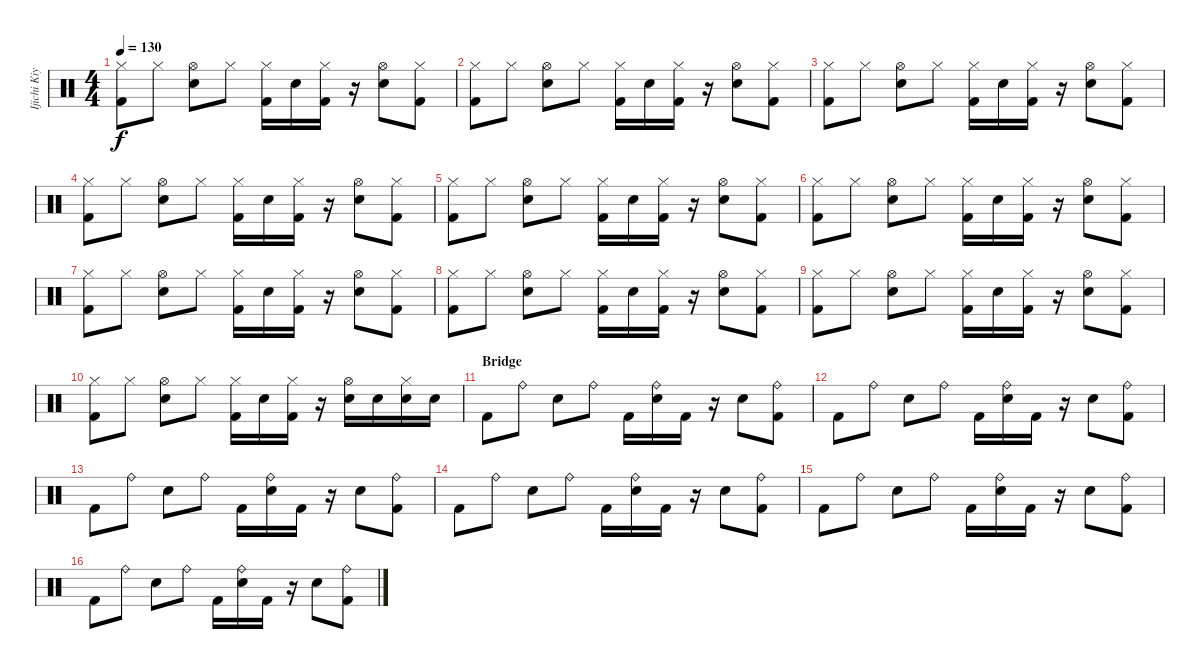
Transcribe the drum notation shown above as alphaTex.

\track ("Ijichi Kiyoshi (Drums)" "Ijichi Kiy") {instrument percussion}
\staff {score}
\articulation defaults
\ts (4 4)
\tempo 130
\clef neutral
\ks c
("Hi-Hat (closed)" "Kick (hit) 2").8{dy f} "Hi-Hat (closed)".8 ("Hi-Hat (open)" "Snare (hit) 2").8 "Hi-Hat (closed)".8 ("Hi-Hat (closed)" "Kick (hit) 2").16 "Snare (hit) 2".16 ("Hi-Hat (closed)" "Kick (hit) 2").16 r.16 ("Hi-Hat (open)" "Snare (hit) 2").8 ("Hi-Hat (closed)" "Kick (hit) 2").8 |
("Hi-Hat (closed)" "Kick (hit) 2").8 "Hi-Hat (closed)".8 ("Hi-Hat (open)" "Snare (hit) 2").8 "Hi-Hat (closed)".8 ("Hi-Hat (closed)" "Kick (hit) 2").16 "Snare (hit) 2".16 ("Hi-Hat (closed)" "Kick (hit) 2").16 r.16 ("Hi-Hat (open)" "Snare (hit) 2").8 ("Hi-Hat (closed)" "Kick (hit) 2").8 |
("Hi-Hat (closed)" "Kick (hit) 2").8 "Hi-Hat (closed)".8 ("Hi-Hat (open)" "Snare (hit) 2").8 "Hi-Hat (closed)".8 ("Hi-Hat (closed)" "Kick (hit) 2").16 "Snare (hit) 2".16 ("Hi-Hat (closed)" "Kick (hit) 2").16 r.16 ("Hi-Hat (open)" "Snare (hit) 2").8 ("Hi-Hat (closed)" "Kick (hit) 2").8 |
("Hi-Hat (closed)" "Kick (hit) 2").8 "Hi-Hat (closed)".8 ("Hi-Hat (open)" "Snare (hit) 2").8 "Hi-Hat (closed)".8 ("Hi-Hat (closed)" "Kick (hit) 2").16 "Snare (hit) 2".16 ("Hi-Hat (closed)" "Kick (hit) 2").16 r.16 ("Hi-Hat (open)" "Snare (hit) 2").8 ("Hi-Hat (closed)" "Kick (hit) 2").8 |
("Hi-Hat (closed)" "Kick (hit) 2").8 "Hi-Hat (closed)".8 ("Hi-Hat (open)" "Snare (hit) 2").8 "Hi-Hat (closed)".8 ("Hi-Hat (closed)" "Kick (hit) 2").16 "Snare (hit) 2".16 ("Hi-Hat (closed)" "Kick (hit) 2").16 r.16 ("Hi-Hat (open)" "Snare (hit) 2").8 ("Hi-Hat (closed)" "Kick (hit) 2").8 |
("Hi-Hat (closed)" "Kick (hit) 2").8 "Hi-Hat (closed)".8 ("Hi-Hat (open)" "Snare (hit) 2").8 "Hi-Hat (closed)".8 ("Hi-Hat (closed)" "Kick (hit) 2").16 "Snare (hit) 2".16 ("Hi-Hat (closed)" "Kick (hit) 2").16 r.16 ("Hi-Hat (open)" "Snare (hit) 2").8 ("Hi-Hat (closed)" "Kick (hit) 2").8 |
("Hi-Hat (closed)" "Kick (hit) 2").8 "Hi-Hat (closed)".8 ("Hi-Hat (open)" "Snare (hit) 2").8 "Hi-Hat (closed)".8 ("Hi-Hat (closed)" "Kick (hit) 2").16 "Snare (hit) 2".16 ("Hi-Hat (closed)" "Kick (hit) 2").16 r.16 ("Hi-Hat (open)" "Snare (hit) 2").8 ("Hi-Hat (closed)" "Kick (hit) 2").8 |
("Hi-Hat (closed)" "Kick (hit) 2").8 "Hi-Hat (closed)".8 ("Hi-Hat (open)" "Snare (hit) 2").8 "Hi-Hat (closed)".8 ("Hi-Hat (closed)" "Kick (hit) 2").16 "Snare (hit) 2".16 ("Hi-Hat (closed)" "Kick (hit) 2").16 r.16 ("Hi-Hat (open)" "Snare (hit) 2").8 ("Hi-Hat (closed)" "Kick (hit) 2").8 |
("Hi-Hat (closed)" "Kick (hit) 2").8 "Hi-Hat (closed)".8 ("Hi-Hat (open)" "Snare (hit) 2").8 "Hi-Hat (closed)".8 ("Hi-Hat (closed)" "Kick (hit) 2").16 "Snare (hit) 2".16 ("Hi-Hat (closed)" "Kick (hit) 2").16 r.16 ("Hi-Hat (open)" "Snare (hit) 2").8 ("Hi-Hat (closed)" "Kick (hit) 2").8 |
("Hi-Hat (closed)" "Kick (hit) 2").8 "Hi-Hat (closed)".8 ("Hi-Hat (open)" "Snare (hit) 2").8 "Hi-Hat (closed)".8 ("Hi-Hat (closed)" "Kick (hit) 2").16 "Snare (hit) 2".16 ("Hi-Hat (closed)" "Kick (hit) 2").16 r.16 ("Hi-Hat (open)" "Snare (hit) 2").16 "Snare (hit) 2".16 ("Hi-Hat (closed)" "Snare (hit) 2").16 "Snare (hit) 2".16 |
\section ("" "Bridge")
"Kick (hit) 2".8 "Ride (bell)".8 "Snare (hit) 2".8 "Ride (bell)".8 "Kick (hit) 2".16 ("Ride (bell)" "Snare (hit) 2").16 "Kick (hit) 2".16 r.16 "Snare (hit) 2".8 ("Ride (bell)" "Kick (hit) 2").8 |
"Kick (hit) 2".8 "Ride (bell)".8 "Snare (hit) 2".8 "Ride (bell)".8 "Kick (hit) 2".16 ("Ride (bell)" "Snare (hit) 2").16 "Kick (hit) 2".16 r.16 "Snare (hit) 2".8 ("Ride (bell)" "Kick (hit) 2").8 |
"Kick (hit) 2".8 "Ride (bell)".8 "Snare (hit) 2".8 "Ride (bell)".8 "Kick (hit) 2".16 ("Ride (bell)" "Snare (hit) 2").16 "Kick (hit) 2".16 r.16 "Snare (hit) 2".8 ("Ride (bell)" "Kick (hit) 2").8 |
"Kick (hit) 2".8 "Ride (bell)".8 "Snare (hit) 2".8 "Ride (bell)".8 "Kick (hit) 2".16 ("Ride (bell)" "Snare (hit) 2").16 "Kick (hit) 2".16 r.16 "Snare (hit) 2".8 ("Ride (bell)" "Kick (hit) 2").8 |
"Kick (hit) 2".8 "Ride (bell)".8 "Snare (hit) 2".8 "Ride (bell)".8 "Kick (hit) 2".16 ("Ride (bell)" "Snare (hit) 2").16 "Kick (hit) 2".16 r.16 "Snare (hit) 2".8 ("Ride (bell)" "Kick (hit) 2").8 |
"Kick (hit) 2".8 "Ride (bell)".8 "Snare (hit) 2".8 "Ride (bell)".8 "Kick (hit) 2".16 ("Ride (bell)" "Snare (hit) 2").16 "Kick (hit) 2".16 r.16 "Snare (hit) 2".8 ("Ride (bell)" "Kick (hit) 2").8
